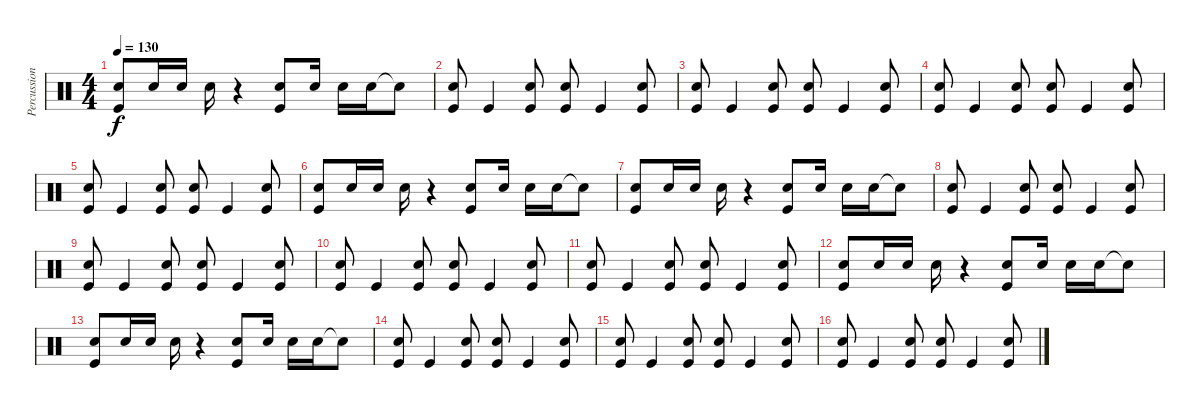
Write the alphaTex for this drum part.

\track ("Percussion" "Percussion") {instrument percussion}
\staff {score}
\articulation defaults
\ts (4 4)
\tempo 130
\clef neutral
\ks c
("Kick (hit)" "Snare (hit) 2").8{dy f} "Snare (hit) 2".16 "Snare (hit) 2".16 "Snare (hit) 2".16 r.4 ("Kick (hit)" "Snare (hit) 2").8 "Snare (hit) 2".16 "Snare (hit) 2".16 "Snare (hit) 2".16 "Snare (hit)"{t}.8 |
("Kick (hit)" "Snare (hit) 2").8 "Kick (hit)".4 ("Kick (hit)" "Snare (hit) 2").8 ("Kick (hit)" "Snare (hit) 2").8 "Kick (hit)".4 ("Kick (hit)" "Snare (hit) 2").8 |
("Kick (hit)" "Snare (hit) 2").8 "Kick (hit)".4 ("Kick (hit)" "Snare (hit) 2").8 ("Kick (hit)" "Snare (hit) 2").8 "Kick (hit)".4 ("Kick (hit)" "Snare (hit) 2").8 |
("Kick (hit)" "Snare (hit) 2").8 "Kick (hit)".4 ("Kick (hit)" "Snare (hit) 2").8 ("Kick (hit)" "Snare (hit) 2").8 "Kick (hit)".4 ("Kick (hit)" "Snare (hit) 2").8 |
("Kick (hit)" "Snare (hit) 2").8 "Kick (hit)".4 ("Kick (hit)" "Snare (hit) 2").8 ("Kick (hit)" "Snare (hit) 2").8 "Kick (hit)".4 ("Kick (hit)" "Snare (hit) 2").8 |
("Kick (hit)" "Snare (hit) 2").8 "Snare (hit) 2".16 "Snare (hit) 2".16 "Snare (hit) 2".16 r.4 ("Kick (hit)" "Snare (hit) 2").8 "Snare (hit) 2".16 "Snare (hit) 2".16 "Snare (hit) 2".16 "Snare (hit)"{t}.8 |
("Kick (hit)" "Snare (hit) 2").8 "Snare (hit) 2".16 "Snare (hit) 2".16 "Snare (hit) 2".16 r.4 ("Kick (hit)" "Snare (hit) 2").8 "Snare (hit) 2".16 "Snare (hit) 2".16 "Snare (hit) 2".16 "Snare (hit)"{t}.8 |
("Kick (hit)" "Snare (hit) 2").8 "Kick (hit)".4 ("Kick (hit)" "Snare (hit) 2").8 ("Kick (hit)" "Snare (hit) 2").8 "Kick (hit)".4 ("Kick (hit)" "Snare (hit) 2").8 |
("Kick (hit)" "Snare (hit) 2").8 "Kick (hit)".4 ("Kick (hit)" "Snare (hit) 2").8 ("Kick (hit)" "Snare (hit) 2").8 "Kick (hit)".4 ("Kick (hit)" "Snare (hit) 2").8 |
("Kick (hit)" "Snare (hit) 2").8 "Kick (hit)".4 ("Kick (hit)" "Snare (hit) 2").8 ("Kick (hit)" "Snare (hit) 2").8 "Kick (hit)".4 ("Kick (hit)" "Snare (hit) 2").8 |
("Kick (hit)" "Snare (hit) 2").8 "Kick (hit)".4 ("Kick (hit)" "Snare (hit) 2").8 ("Kick (hit)" "Snare (hit) 2").8 "Kick (hit)".4 ("Kick (hit)" "Snare (hit) 2").8 |
("Kick (hit)" "Snare (hit) 2").8 "Snare (hit) 2".16 "Snare (hit) 2".16 "Snare (hit) 2".16 r.4 ("Kick (hit)" "Snare (hit) 2").8 "Snare (hit) 2".16 "Snare (hit) 2".16 "Snare (hit) 2".16 "Snare (hit)"{t}.8 |
("Kick (hit)" "Snare (hit) 2").8 "Snare (hit) 2".16 "Snare (hit) 2".16 "Snare (hit) 2".16 r.4 ("Kick (hit)" "Snare (hit) 2").8 "Snare (hit) 2".16 "Snare (hit) 2".16 "Snare (hit) 2".16 "Snare (hit)"{t}.8 |
("Kick (hit)" "Snare (hit) 2").8 "Kick (hit)".4 ("Kick (hit)" "Snare (hit) 2").8 ("Kick (hit)" "Snare (hit) 2").8 "Kick (hit)".4 ("Kick (hit)" "Snare (hit) 2").8 |
("Kick (hit)" "Snare (hit) 2").8 "Kick (hit)".4 ("Kick (hit)" "Snare (hit) 2").8 ("Kick (hit)" "Snare (hit) 2").8 "Kick (hit)".4 ("Kick (hit)" "Snare (hit) 2").8 |
("Kick (hit)" "Snare (hit) 2").8 "Kick (hit)".4 ("Kick (hit)" "Snare (hit) 2").8 ("Kick (hit)" "Snare (hit) 2").8 "Kick (hit)".4 ("Kick (hit)" "Snare (hit) 2").8
